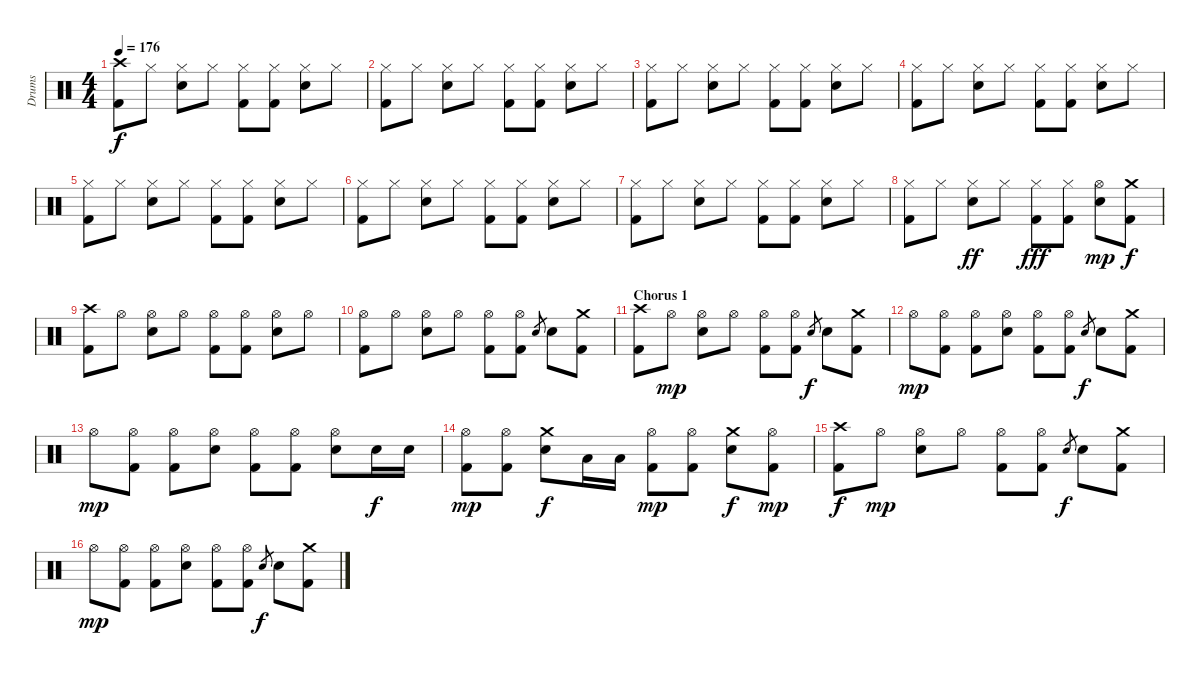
\track ("Drums" "Drums") {instrument percussion}
\staff {score}
\articulation defaults
\ts (4 4)
\tempo 176
\clef neutral
\ks c
("Crash high (hit)" "Kick (hit) 2").8{dy f} "Hi-Hat (closed)".8 ("Hi-Hat (closed)" "Electric Snare (hit)").8 "Hi-Hat (closed)".8 ("Hi-Hat (closed)" "Kick (hit) 2").8 ("Hi-Hat (closed)" "Kick (hit) 2").8 ("Hi-Hat (closed)" "Electric Snare (hit)").8 "Hi-Hat (closed)".8 |
("Hi-Hat (closed)" "Kick (hit) 2").8 "Hi-Hat (closed)".8 ("Hi-Hat (closed)" "Electric Snare (hit)").8 "Hi-Hat (closed)".8 ("Hi-Hat (closed)" "Kick (hit) 2").8 ("Hi-Hat (closed)" "Kick (hit) 2").8 ("Hi-Hat (closed)" "Electric Snare (hit)").8 "Hi-Hat (closed)".8 |
("Hi-Hat (closed)" "Kick (hit) 2").8 "Hi-Hat (closed)".8 ("Hi-Hat (closed)" "Electric Snare (hit)").8 "Hi-Hat (closed)".8 ("Hi-Hat (closed)" "Kick (hit) 2").8 ("Hi-Hat (closed)" "Kick (hit) 2").8 ("Hi-Hat (closed)" "Electric Snare (hit)").8 "Hi-Hat (closed)".8 |
("Hi-Hat (closed)" "Kick (hit) 2").8 "Hi-Hat (closed)".8 ("Hi-Hat (closed)" "Electric Snare (hit)").8 "Hi-Hat (closed)".8 ("Hi-Hat (closed)" "Kick (hit) 2").8 ("Hi-Hat (closed)" "Kick (hit) 2").8 ("Hi-Hat (closed)" "Electric Snare (hit)").8 "Hi-Hat (closed)".8 |
("Hi-Hat (closed)" "Kick (hit) 2").8 "Hi-Hat (closed)".8 ("Hi-Hat (closed)" "Electric Snare (hit)").8 "Hi-Hat (closed)".8 ("Hi-Hat (closed)" "Kick (hit) 2").8 ("Hi-Hat (closed)" "Kick (hit) 2").8 ("Hi-Hat (closed)" "Electric Snare (hit)").8 "Hi-Hat (closed)".8 |
("Hi-Hat (closed)" "Kick (hit) 2").8 "Hi-Hat (closed)".8 ("Hi-Hat (closed)" "Electric Snare (hit)").8 "Hi-Hat (closed)".8 ("Hi-Hat (closed)" "Kick (hit) 2").8 ("Hi-Hat (closed)" "Kick (hit) 2").8 ("Hi-Hat (closed)" "Electric Snare (hit)").8 "Hi-Hat (closed)".8 |
("Hi-Hat (closed)" "Kick (hit) 2").8 "Hi-Hat (closed)".8 ("Hi-Hat (closed)" "Electric Snare (hit)").8 "Hi-Hat (closed)".8 ("Hi-Hat (closed)" "Kick (hit) 2").8 ("Hi-Hat (closed)" "Kick (hit) 2").8 ("Hi-Hat (closed)" "Electric Snare (hit)").8 "Hi-Hat (closed)".8 |
("Hi-Hat (closed)" "Kick (hit) 2").8 "Hi-Hat (closed)".8 ("Hi-Hat (closed)" "Electric Snare (hit)").8{dy ff} "Hi-Hat (closed)".8 ("Hi-Hat (closed)" "Kick (hit) 2").8{dy fff} ("Hi-Hat (closed)" "Kick (hit) 2").8 ("Hi-Hat (open)" "Electric Snare (hit)").8{dy mp} ("Crash medium (hit)" "Kick (hit) 2").8{dy f} |
("Crash high (hit)" "Kick (hit) 2").8 "Hi-Hat (open)".8 ("Hi-Hat (open)" "Electric Snare (hit)").8 "Hi-Hat (open)".8 ("Hi-Hat (open)" "Kick (hit) 2").8 ("Hi-Hat (open)" "Kick (hit) 2").8 ("Hi-Hat (open)" "Electric Snare (hit)").8 "Hi-Hat (open)".8 |
("Hi-Hat (open)" "Kick (hit) 2").8 "Hi-Hat (open)".8 ("Hi-Hat (open)" "Electric Snare (hit)").8 "Hi-Hat (open)".8 ("Hi-Hat (open)" "Kick (hit) 2").8 ("Hi-Hat (open)" "Kick (hit) 2").8 "Electric Snare (hit)".8{gr} "Electric Snare (hit)".8 ("Crash medium (hit)" "Kick (hit) 2").8 |
\section ("" "Chorus 1")
("Crash high (hit)" "Kick (hit) 2").8 "Hi-Hat (open)".8{dy mp} ("Hi-Hat (open)" "Electric Snare (hit)").8 "Hi-Hat (open)".8 ("Hi-Hat (open)" "Kick (hit) 2").8 ("Hi-Hat (open)" "Kick (hit) 2").8 "Electric Snare (hit)".8{gr dy f} "Electric Snare (hit)".8 ("Crash medium (hit)" "Kick (hit) 2").8 |
"Hi-Hat (open)".8{dy mp} ("Hi-Hat (open)" "Kick (hit) 2").8 ("Hi-Hat (open)" "Kick (hit) 2").8 ("Hi-Hat (open)" "Electric Snare (hit)").8 ("Hi-Hat (open)" "Kick (hit) 2").8 ("Hi-Hat (open)" "Kick (hit) 2").8 "Electric Snare (hit)".8{gr dy f} "Electric Snare (hit)".8 ("Crash medium (hit)" "Kick (hit) 2").8 |
"Hi-Hat (open)".8{dy mp} ("Hi-Hat (open)" "Kick (hit) 2").8 ("Hi-Hat (open)" "Kick (hit) 2").8 ("Hi-Hat (open)" "Electric Snare (hit)").8 ("Hi-Hat (open)" "Kick (hit) 2").8 ("Hi-Hat (open)" "Kick (hit) 2").8 ("Hi-Hat (open)" "Electric Snare (hit)").8 "Electric Snare (hit)".16{dy f} "Electric Snare (hit)".16 |
("Hi-Hat (open)" "Kick (hit) 2").8{dy mp} ("Hi-Hat (open)" "Kick (hit) 2").8 ("Crash medium (hit)" "Electric Snare (hit)").8{dy f} "Low Tom (hit)".16 "Low Tom (hit)".16 ("Hi-Hat (open)" "Kick (hit) 2").8{dy mp} ("Hi-Hat (open)" "Kick (hit) 2").8 ("Crash medium (hit)" "Electric Snare (hit)").8{dy f} ("Hi-Hat (open)" "Kick (hit) 2").8{dy mp} |
("Crash high (hit)" "Kick (hit) 2").8{dy f} "Hi-Hat (open)".8{dy mp} ("Hi-Hat (open)" "Electric Snare (hit)").8 "Hi-Hat (open)".8 ("Hi-Hat (open)" "Kick (hit) 2").8 ("Hi-Hat (open)" "Kick (hit) 2").8 "Electric Snare (hit)".8{gr dy f} "Electric Snare (hit)".8 ("Crash medium (hit)" "Kick (hit) 2").8 |
"Hi-Hat (open)".8{dy mp} ("Hi-Hat (open)" "Kick (hit) 2").8 ("Hi-Hat (open)" "Kick (hit) 2").8 ("Hi-Hat (open)" "Electric Snare (hit)").8 ("Hi-Hat (open)" "Kick (hit) 2").8 ("Hi-Hat (open)" "Kick (hit) 2").8 "Electric Snare (hit)".8{gr dy f} "Electric Snare (hit)".8 ("Crash medium (hit)" "Kick (hit) 2").8
